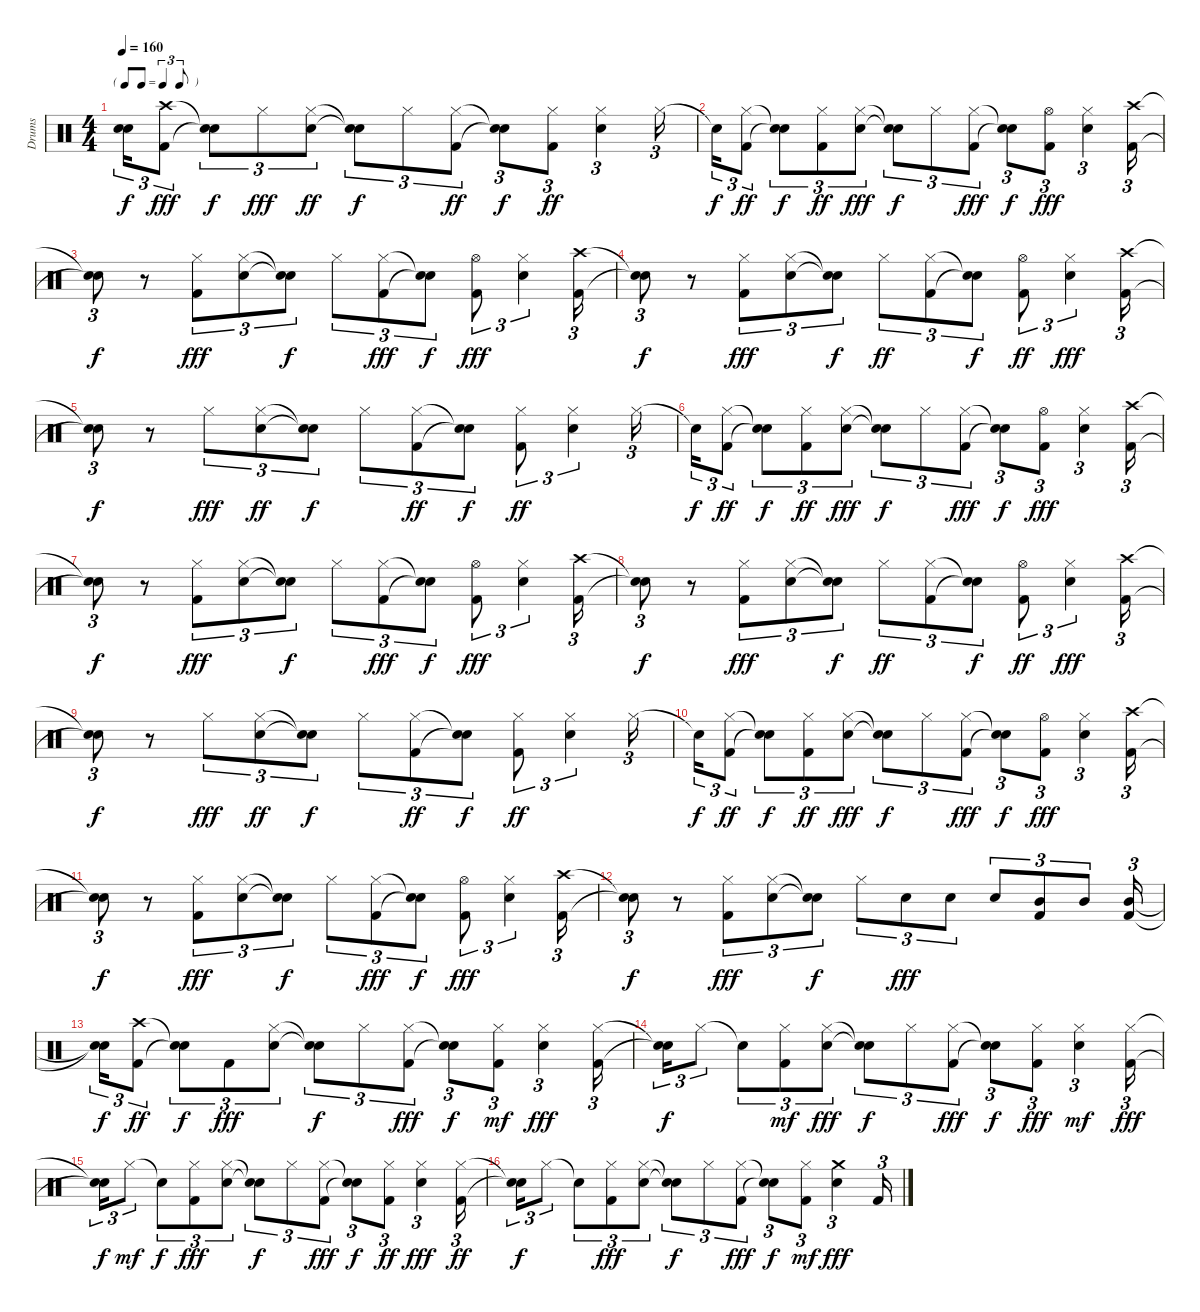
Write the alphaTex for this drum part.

\track ("Drums" "Drums") {instrument percussion}
\staff {score}
\articulation defaults
\ts (4 4)
\tf triplet8th
\tempo 160
\clef neutral
\ks c
("Snare (hit)"{t} "Snare (hit)"{t}).16{tu (3 2) dy f} ("Kick (hit) 2" "Crash high (hit)").8{tu (3 2) dy fff} ("Snare (hit)"{t} "Snare (hit)"{t}).8{tu (3 2) dy f} "Hi-Hat (closed)".8{tu (3 2) dy fff} ("Electric Snare (hit)" "Hi-Hat (closed)").8{tu (3 2) dy ff} ("Snare (hit)"{t} "Snare (hit)"{t}).8{tu (3 2) dy f} "Hi-Hat (closed)".8{tu (3 2)} ("Kick (hit) 2" "Hi-Hat (closed)").8{tu (3 2) dy ff} ("Snare (hit)"{t} "Snare (hit)"{t}).8{tu (3 2) dy f} ("Kick (hit) 2" "Hi-Hat (closed)").8{tu (3 2) dy ff} ("Electric Snare (hit)" "Hi-Hat (closed)").4{tu (3 2)} "Hi-Hat (closed)".16{tu (3 2)} |
"Snare (hit)"{t}.16{tu (3 2) dy f} ("Kick (hit) 2" "Hi-Hat (closed)").8{tu (3 2) dy ff} ("Snare (hit)"{t} "Snare (hit)"{t}).8{tu (3 2) dy f} ("Kick (hit) 2" "Hi-Hat (closed)").8{tu (3 2) dy ff} ("Hi-Hat (closed)" "Electric Snare (hit)").8{tu (3 2) dy fff} ("Snare (hit)"{t} "Snare (hit)"{t}).8{tu (3 2) dy f} "Hi-Hat (closed)".8{tu (3 2)} ("Kick (hit) 2" "Hi-Hat (closed)").8{tu (3 2) dy fff} ("Snare (hit)"{t} "Snare (hit)"{t}).8{tu (3 2) dy f} ("Kick (hit) 2" "Hi-Hat (open)").8{tu (3 2) dy fff} ("Electric Snare (hit)" "Hi-Hat (closed)").4{tu (3 2)} ("Kick (hit) 2" "Crash high (hit)").16{tu (3 2)} |
("Snare (hit)"{t} "Snare (hit)"{t}).8{tu (3 2) dy f} r.8 ("Kick (hit) 2" "Hi-Hat (closed)").8{tu (3 2) dy fff} ("Hi-Hat (closed)" "Electric Snare (hit)").8{tu (3 2)} ("Snare (hit)"{t} "Snare (hit)"{t}).8{tu (3 2) dy f} "Hi-Hat (closed)".8{tu (3 2)} ("Kick (hit) 2" "Hi-Hat (closed)").8{tu (3 2) dy fff} ("Snare (hit)"{t} "Snare (hit)"{t}).8{tu (3 2) dy f} ("Kick (hit) 2" "Hi-Hat (open)").8{tu (3 2) dy fff} ("Hi-Hat (closed)" "Electric Snare (hit)").4{tu (3 2)} ("Kick (hit) 2" "Crash high (hit)").16{tu (3 2)} |
("Snare (hit)"{t} "Snare (hit)"{t}).8{tu (3 2) dy f} r.8 ("Kick (hit) 2" "Hi-Hat (closed)").8{tu (3 2) dy fff} ("Hi-Hat (closed)" "Electric Snare (hit)").8{tu (3 2)} ("Snare (hit)"{t} "Snare (hit)"{t}).8{tu (3 2) dy f} "Hi-Hat (closed)".8{tu (3 2) dy ff} ("Kick (hit) 2" "Hi-Hat (closed)").8{tu (3 2)} ("Snare (hit)"{t} "Snare (hit)"{t}).8{tu (3 2) dy f} ("Kick (hit) 2" "Hi-Hat (open)").8{tu (3 2) dy ff} ("Hi-Hat (closed)" "Electric Snare (hit)").4{tu (3 2) dy fff} ("Kick (hit) 2" "Crash high (hit)").16{tu (3 2)} |
("Snare (hit)"{t} "Snare (hit)"{t}).8{tu (3 2) dy f} r.8 "Hi-Hat (closed)".8{tu (3 2) dy fff} ("Electric Snare (hit)" "Hi-Hat (closed)").8{tu (3 2) dy ff} ("Snare (hit)"{t} "Snare (hit)"{t}).8{tu (3 2) dy f} "Hi-Hat (closed)".8{tu (3 2)} ("Kick (hit) 2" "Hi-Hat (closed)").8{tu (3 2) dy ff} ("Snare (hit)"{t} "Snare (hit)"{t}).8{tu (3 2) dy f} ("Kick (hit) 2" "Hi-Hat (closed)").8{tu (3 2) dy ff} ("Electric Snare (hit)" "Hi-Hat (closed)").4{tu (3 2)} "Hi-Hat (closed)".16{tu (3 2)} |
"Snare (hit)"{t}.16{tu (3 2) dy f} ("Kick (hit) 2" "Hi-Hat (closed)").8{tu (3 2) dy ff} ("Snare (hit)"{t} "Snare (hit)"{t}).8{tu (3 2) dy f} ("Kick (hit) 2" "Hi-Hat (closed)").8{tu (3 2) dy ff} ("Hi-Hat (closed)" "Electric Snare (hit)").8{tu (3 2) dy fff} ("Snare (hit)"{t} "Snare (hit)"{t}).8{tu (3 2) dy f} "Hi-Hat (closed)".8{tu (3 2)} ("Kick (hit) 2" "Hi-Hat (closed)").8{tu (3 2) dy fff} ("Snare (hit)"{t} "Snare (hit)"{t}).8{tu (3 2) dy f} ("Kick (hit) 2" "Hi-Hat (open)").8{tu (3 2) dy fff} ("Electric Snare (hit)" "Hi-Hat (closed)").4{tu (3 2)} ("Kick (hit) 2" "Crash high (hit)").16{tu (3 2)} |
("Snare (hit)"{t} "Snare (hit)"{t}).8{tu (3 2) dy f} r.8 ("Kick (hit) 2" "Hi-Hat (closed)").8{tu (3 2) dy fff} ("Hi-Hat (closed)" "Electric Snare (hit)").8{tu (3 2)} ("Snare (hit)"{t} "Snare (hit)"{t}).8{tu (3 2) dy f} "Hi-Hat (closed)".8{tu (3 2)} ("Kick (hit) 2" "Hi-Hat (closed)").8{tu (3 2) dy fff} ("Snare (hit)"{t} "Snare (hit)"{t}).8{tu (3 2) dy f} ("Kick (hit) 2" "Hi-Hat (open)").8{tu (3 2) dy fff} ("Hi-Hat (closed)" "Electric Snare (hit)").4{tu (3 2)} ("Kick (hit) 2" "Crash high (hit)").16{tu (3 2)} |
("Snare (hit)"{t} "Snare (hit)"{t}).8{tu (3 2) dy f} r.8 ("Kick (hit) 2" "Hi-Hat (closed)").8{tu (3 2) dy fff} ("Hi-Hat (closed)" "Electric Snare (hit)").8{tu (3 2)} ("Snare (hit)"{t} "Snare (hit)"{t}).8{tu (3 2) dy f} "Hi-Hat (closed)".8{tu (3 2) dy ff} ("Kick (hit) 2" "Hi-Hat (closed)").8{tu (3 2)} ("Snare (hit)"{t} "Snare (hit)"{t}).8{tu (3 2) dy f} ("Kick (hit) 2" "Hi-Hat (open)").8{tu (3 2) dy ff} ("Hi-Hat (closed)" "Electric Snare (hit)").4{tu (3 2) dy fff} ("Kick (hit) 2" "Crash high (hit)").16{tu (3 2)} |
("Snare (hit)"{t} "Snare (hit)"{t}).8{tu (3 2) dy f} r.8 "Hi-Hat (closed)".8{tu (3 2) dy fff} ("Electric Snare (hit)" "Hi-Hat (closed)").8{tu (3 2) dy ff} ("Snare (hit)"{t} "Snare (hit)"{t}).8{tu (3 2) dy f} "Hi-Hat (closed)".8{tu (3 2)} ("Kick (hit) 2" "Hi-Hat (closed)").8{tu (3 2) dy ff} ("Snare (hit)"{t} "Snare (hit)"{t}).8{tu (3 2) dy f} ("Kick (hit) 2" "Hi-Hat (closed)").8{tu (3 2) dy ff} ("Electric Snare (hit)" "Hi-Hat (closed)").4{tu (3 2)} "Hi-Hat (closed)".16{tu (3 2)} |
"Snare (hit)"{t}.16{tu (3 2) dy f} ("Kick (hit) 2" "Hi-Hat (closed)").8{tu (3 2) dy ff} ("Snare (hit)"{t} "Snare (hit)"{t}).8{tu (3 2) dy f} ("Kick (hit) 2" "Hi-Hat (closed)").8{tu (3 2) dy ff} ("Hi-Hat (closed)" "Electric Snare (hit)").8{tu (3 2) dy fff} ("Snare (hit)"{t} "Snare (hit)"{t}).8{tu (3 2) dy f} "Hi-Hat (closed)".8{tu (3 2)} ("Kick (hit) 2" "Hi-Hat (closed)").8{tu (3 2) dy fff} ("Snare (hit)"{t} "Snare (hit)"{t}).8{tu (3 2) dy f} ("Kick (hit) 2" "Hi-Hat (open)").8{tu (3 2) dy fff} ("Electric Snare (hit)" "Hi-Hat (closed)").4{tu (3 2)} ("Kick (hit) 2" "Crash high (hit)").16{tu (3 2)} |
("Snare (hit)"{t} "Snare (hit)"{t}).8{tu (3 2) dy f} r.8 ("Kick (hit) 2" "Hi-Hat (closed)").8{tu (3 2) dy fff} ("Hi-Hat (closed)" "Electric Snare (hit)").8{tu (3 2)} ("Snare (hit)"{t} "Snare (hit)"{t}).8{tu (3 2) dy f} "Hi-Hat (closed)".8{tu (3 2)} ("Kick (hit) 2" "Hi-Hat (closed)").8{tu (3 2) dy fff} ("Snare (hit)"{t} "Snare (hit)"{t}).8{tu (3 2) dy f} ("Kick (hit) 2" "Hi-Hat (open)").8{tu (3 2) dy fff} ("Hi-Hat (closed)" "Electric Snare (hit)").4{tu (3 2)} ("Kick (hit) 2" "Crash high (hit)").16{tu (3 2)} |
("Snare (hit)"{t} "Snare (hit)"{t}).8{tu (3 2) dy f} r.8 ("Kick (hit) 2" "Hi-Hat (closed)").8{tu (3 2) dy fff} ("Hi-Hat (closed)" "Electric Snare (hit)").8{tu (3 2)} ("Snare (hit)"{t} "Snare (hit)"{t}).8{tu (3 2) dy f} "Hi-Hat (closed)".8{tu (3 2)} "Electric Snare (hit)".8{tu (3 2) dy fff} "Electric Snare (hit)".8{tu (3 2)} "Electric Snare (hit)".8{tu (3 2)} ("Kick (hit) 2" "Mid Tom (hit)").8{tu (3 2)} "Mid Tom (hit)".8{tu (3 2)} ("Kick (hit) 2" "Mid Tom (hit)").16{tu (3 2)} |
("Snare (hit)"{t} "Snare (hit)"{t}).16{tu (3 2) dy f} ("Kick (hit) 2" "Crash high (hit)").8{tu (3 2) dy ff} ("Snare (hit)"{t} "Snare (hit)"{t}).8{tu (3 2) dy f} "Kick (hit) 2".8{tu (3 2) dy fff} ("Hi-Hat (closed)" "Electric Snare (hit)").8{tu (3 2)} ("Snare (hit)"{t} "Snare (hit)"{t}).8{tu (3 2) dy f} "Hi-Hat (closed)".8{tu (3 2)} ("Kick (hit) 2" "Hi-Hat (closed)").8{tu (3 2) dy fff} ("Snare (hit)"{t} "Snare (hit)"{t}).8{tu (3 2) dy f} ("Kick (hit) 2" "Hi-Hat (closed)").8{tu (3 2) dy mf} ("Electric Snare (hit)" "Hi-Hat (closed)").4{tu (3 2) dy fff} ("Kick (hit) 2" "Hi-Hat (closed)").16{tu (3 2)} |
("Snare (hit)"{t} "Snare (hit)"{t}).16{tu (3 2) dy f} "Hi-Hat (closed)".8{tu (3 2)} "Snare (hit)"{t}.8{tu (3 2)} ("Kick (hit) 2" "Hi-Hat (closed)").8{tu (3 2) dy mf} ("Electric Snare (hit)" "Hi-Hat (closed)").8{tu (3 2) dy fff} ("Snare (hit)"{t} "Snare (hit)"{t}).8{tu (3 2) dy f} "Hi-Hat (closed)".8{tu (3 2)} ("Kick (hit) 2" "Hi-Hat (closed)").8{tu (3 2) dy fff} ("Snare (hit)"{t} "Snare (hit)"{t}).8{tu (3 2) dy f} ("Kick (hit) 2" "Hi-Hat (closed)").8{tu (3 2) dy fff} ("Electric Snare (hit)" "Hi-Hat (closed)").4{tu (3 2) dy mf} ("Kick (hit) 2" "Hi-Hat (closed)").16{tu (3 2) dy fff} |
("Snare (hit)"{t} "Snare (hit)"{t}).16{tu (3 2) dy f} "Hi-Hat (closed)".8{tu (3 2) dy mf} "Snare (hit)"{t}.8{tu (3 2) dy f} ("Kick (hit) 2" "Hi-Hat (closed)").8{tu (3 2) dy fff} ("Hi-Hat (closed)" "Electric Snare (hit)").8{tu (3 2)} ("Snare (hit)"{t} "Snare (hit)"{t}).8{tu (3 2) dy f} "Hi-Hat (closed)".8{tu (3 2)} ("Kick (hit) 2" "Hi-Hat (closed)").8{tu (3 2) dy fff} ("Snare (hit)"{t} "Snare (hit)"{t}).8{tu (3 2) dy f} ("Kick (hit) 2" "Hi-Hat (closed)").8{tu (3 2) dy ff} ("Hi-Hat (closed)" "Electric Snare (hit)").4{tu (3 2) dy fff} ("Kick (hit) 2" "Hi-Hat (closed)").16{tu (3 2) dy ff} |
("Snare (hit)"{t} "Snare (hit)"{t}).16{tu (3 2) dy f} "Hi-Hat (closed)".8{tu (3 2)} "Snare (hit)"{t}.8{tu (3 2)} ("Kick (hit) 2" "Hi-Hat (closed)").8{tu (3 2) dy fff} ("Hi-Hat (closed)" "Electric Snare (hit)").8{tu (3 2)} ("Snare (hit)"{t} "Snare (hit)"{t}).8{tu (3 2) dy f} "Hi-Hat (closed)".8{tu (3 2)} ("Kick (hit) 2" "Hi-Hat (closed)").8{tu (3 2) dy fff} ("Snare (hit)"{t} "Snare (hit)"{t}).8{tu (3 2) dy f} ("Kick (hit) 2" "Hi-Hat (closed)").8{tu (3 2) dy mf} ("Crash medium (hit)" "Electric Snare (hit)").4{tu (3 2) dy fff} "Kick (hit) 2".16{tu (3 2)}
